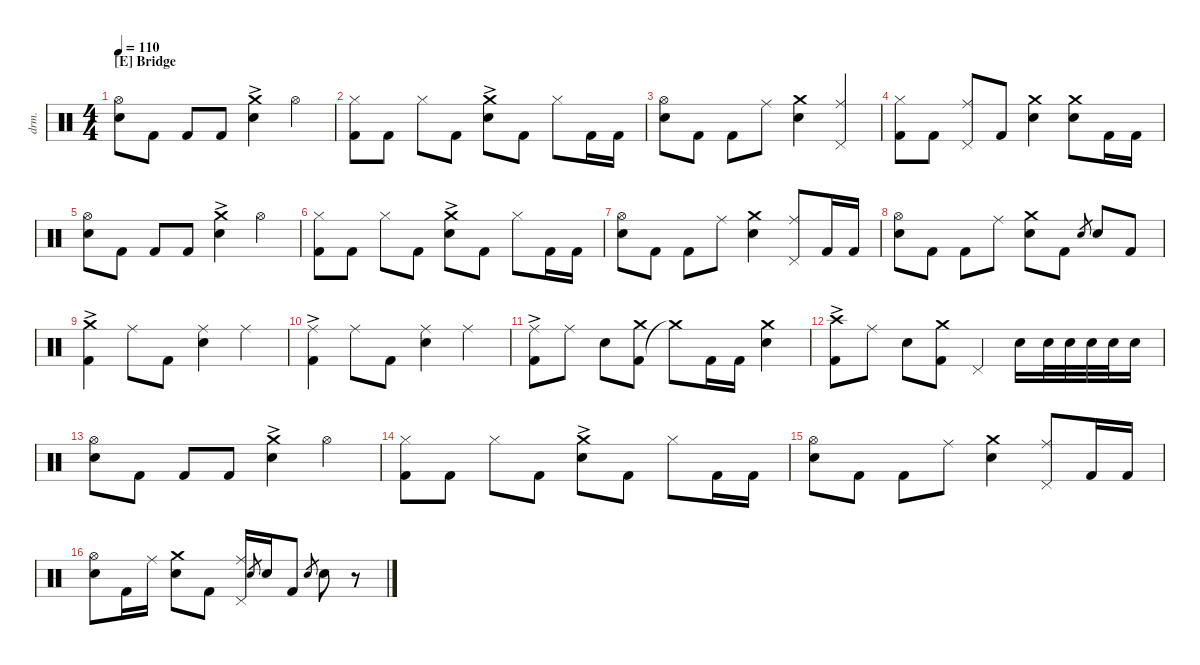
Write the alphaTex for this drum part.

\defaultSystemsLayout 4
\hideDynamics
\bracketExtendMode nobrackets
\otherSystemsTrackNameOrientation horizontal
\track ("Drums" "drm.") {instrument percussion}
\staff {score}
\articulation defaults
\ts (4 4)
\section ("E" "Bridge")
\tempo 110
\clef neutral
\ks aminor
("Snare (hit) 2" "Hi-Hat (open)").8{dy f beam Down} "Kick (hit) 2".8{beam Down} "Kick (hit) 2".8{beam Up} "Kick (hit) 2".8{beam Up} ("Snare (hit) 2"{ac} "Crash medium (hit)"{ac}).4{beam Down} "Hi-Hat (open)".4{beam Down} |
("Kick (hit) 2" "Hi-Hat (closed)").8{beam Down} "Kick (hit) 2".8{beam Down} "Hi-Hat (closed)".8{beam Down} "Kick (hit) 2".8{beam Down} ("Snare (hit) 2"{ac} "Crash medium (hit)"{ac}).8{beam Down} "Kick (hit) 2".8{beam Down} "Hi-Hat (closed)".8{beam Down} "Kick (hit) 2".16{beam Down} "Kick (hit) 2".16{beam Down} |
("Snare (hit) 2" "Hi-Hat (open)").8{beam Down} "Kick (hit) 2".8{beam Down} "Kick (hit) 2".8{beam Down} "Ride (middle)".8{beam Down} ("Snare (hit) 2" "Crash medium (hit)").4{beam Down} ("Ride (middle)" "Pedal Hi-Hat (hit)").4{beam Up} |
("Kick (hit) 2" "Hi-Hat (closed)").8{beam Down} "Kick (hit) 2".8{beam Down} ("Ride (middle)" "Pedal Hi-Hat (hit)").8{beam Up} "Kick (hit) 2".8{beam Up} ("Snare (hit) 2" "Crash medium (hit)").4{beam Down} ("Snare (hit) 2" "Crash medium (hit)").8{beam Down} "Kick (hit) 2".16{beam Down} "Kick (hit) 2".16{beam Down} |
("Snare (hit) 2" "Hi-Hat (open)").8{beam Down} "Kick (hit) 2".8{beam Down} "Kick (hit) 2".8{beam Up} "Kick (hit) 2".8{beam Up} ("Snare (hit) 2"{ac} "Crash medium (hit)"{ac}).4{beam Down} "Hi-Hat (open)".4{beam Down} |
("Kick (hit) 2" "Hi-Hat (closed)").8{beam Down} "Kick (hit) 2".8{beam Down} "Hi-Hat (closed)".8{beam Down} "Kick (hit) 2".8{beam Down} ("Snare (hit) 2"{ac} "Crash medium (hit)"{ac}).8{beam Down} "Kick (hit) 2".8{beam Down} "Hi-Hat (closed)".8{beam Down} "Kick (hit) 2".16{beam Down} "Kick (hit) 2".16{beam Down} |
("Snare (hit) 2" "Hi-Hat (open)").8{beam Down} "Kick (hit) 2".8{beam Down} "Kick (hit) 2".8{beam Down} "Ride (middle)".8{beam Down} ("Snare (hit) 2" "Crash medium (hit)").4{beam Down} ("Ride (middle)" "Pedal Hi-Hat (hit)").8{beam Up} "Kick (hit) 2".16{beam Up} "Kick (hit) 2".16{beam Up} |
("Snare (hit) 2" "Hi-Hat (open)").8{beam Down} "Kick (hit) 2".8{beam Down} "Kick (hit) 2".8{beam Down} "Ride (middle)".8{beam Down} ("Snare (hit) 2" "Crash medium (hit)").8{beam Down} "Kick (hit) 2".8{beam Down} "Snare (hit) 2".8{gr beam Up} "Snare (hit) 2".8{beam Up} "Kick (hit) 2".8{beam Up} |
("Kick (hit) 2"{ac} "Crash medium (hit)"{ac}).4{beam Down} "Ride (middle)".8{beam Down} "Kick (hit) 2".8{beam Down} ("Ride (middle)" "Snare (hit) 2").4{beam Down} "Ride (middle)".4{beam Down} |
("Kick (hit) 2"{ac} "Ride (middle)").4{beam Down} "Ride (middle)".8{beam Down} "Kick (hit) 2".8{beam Down} ("Ride (middle)" "Snare (hit) 2").4{beam Down} "Ride (middle)".4{beam Down} |
("Kick (hit) 2"{ac} "Ride (middle)").8{beam Down} "Ride (middle)".8{beam Down} "Snare (hit) 2".8{beam Down} ("Kick (hit) 2" "Crash medium (hit)").8{beam Down} "Crash medium (hit)"{t}.8{beam Down} "Kick (hit) 2".16{beam Down} "Kick (hit) 2".16{beam Down} ("Snare (hit) 2" "Crash medium (hit)").4{beam Down} |
("Kick (hit) 2"{ac} "Crash high (hit)"{ac}).8{beam Down} "Ride (middle)".8{beam Down} "Snare (hit) 2".8{beam Down} ("Kick (hit) 2" "Crash medium (hit)").8{beam Down} "Pedal Hi-Hat (hit)".4{beam Up} "Snare (hit) 2".16{beam Down} "Snare (hit) 2".32{beam Down} "Snare (hit) 2".32{beam Down} "Snare (hit) 2".32{beam Down} "Snare (hit) 2".32{beam Down} "Snare (hit) 2".16{beam Down} |
("Snare (hit) 2" "Hi-Hat (open)").8{beam Down} "Kick (hit) 2".8{beam Down} "Kick (hit) 2".8{beam Up} "Kick (hit) 2".8{beam Up} ("Snare (hit) 2"{ac} "Crash medium (hit)"{ac}).4{beam Down} "Hi-Hat (open)".4{beam Down} |
("Kick (hit) 2" "Hi-Hat (closed)").8{beam Down} "Kick (hit) 2".8{beam Down} "Hi-Hat (closed)".8{beam Down} "Kick (hit) 2".8{beam Down} ("Snare (hit) 2"{ac} "Crash medium (hit)"{ac}).8{beam Down} "Kick (hit) 2".8{beam Down} "Hi-Hat (closed)".8{beam Down} "Kick (hit) 2".16{beam Down} "Kick (hit) 2".16{beam Down} |
("Snare (hit) 2" "Hi-Hat (open)").8{beam Down} "Kick (hit) 2".8{beam Down} "Kick (hit) 2".8{beam Down} "Ride (middle)".8{beam Down} ("Snare (hit) 2" "Crash medium (hit)").4{beam Down} ("Ride (middle)" "Pedal Hi-Hat (hit)").8{beam Up} "Kick (hit) 2".16{beam Up} "Kick (hit) 2".16{beam Up} |
("Snare (hit) 2" "Hi-Hat (open)").8{beam Down} "Kick (hit) 2".16{beam Down} "Ride (middle)".16{beam Down} ("Snare (hit) 2" "Crash medium (hit)").8{beam Down} "Kick (hit) 2".8{beam Down} ("Ride (middle)" "Pedal Hi-Hat (hit)").16{beam Up} "Snare (hit) 2".8{gr beam Up} "Snare (hit) 2".16{beam Up} "Kick (hit) 2".8{beam Up} "Snare (hit) 2".8{gr beam Up} "Snare (hit) 2".8{beam Down} r.8{beam Down}
